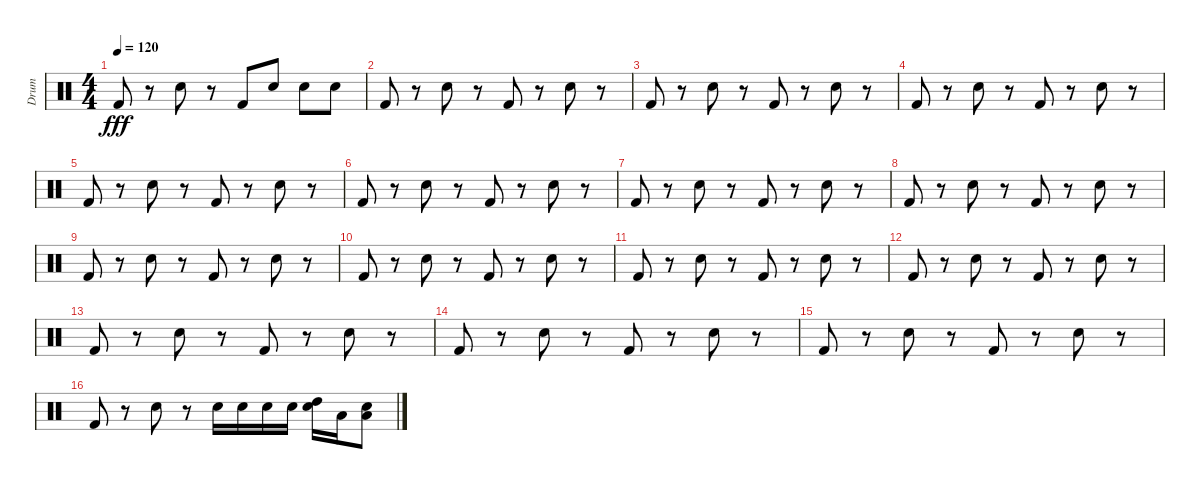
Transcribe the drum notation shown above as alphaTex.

\track ("Drum" "Drum") {instrument percussion}
\staff {score}
\articulation defaults
\ts (4 4)
\tempo 120
\clef neutral
\ks c "Kick (hit) 2".8{dy fff}
r.8 "Snare (hit) 2".8 r.8 "Kick (hit) 2".8 "Snare (hit) 2".8 "Snare (hit) 2".8 "Snare (hit) 2".8 |
"Kick (hit) 2".8 r.8 "Snare (hit) 2".8 r.8 "Kick (hit) 2".8 r.8 "Snare (hit) 2".8 r.8 |
"Kick (hit) 2".8 r.8 "Snare (hit) 2".8 r.8 "Kick (hit) 2".8 r.8 "Snare (hit) 2".8 r.8 |
"Kick (hit) 2".8 r.8 "Snare (hit) 2".8 r.8 "Kick (hit) 2".8 r.8 "Snare (hit) 2".8 r.8 |
"Kick (hit) 2".8 r.8 "Snare (hit) 2".8 r.8 "Kick (hit) 2".8 r.8 "Snare (hit) 2".8 r.8 |
"Kick (hit) 2".8 r.8 "Snare (hit) 2".8 r.8 "Kick (hit) 2".8 r.8 "Snare (hit) 2".8 r.8 |
"Kick (hit) 2".8 r.8 "Snare (hit) 2".8 r.8 "Kick (hit) 2".8 r.8 "Snare (hit) 2".8 r.8 |
"Kick (hit) 2".8 r.8 "Snare (hit) 2".8 r.8 "Kick (hit) 2".8 r.8 "Snare (hit) 2".8 r.8 |
"Kick (hit) 2".8 r.8 "Snare (hit) 2".8 r.8 "Kick (hit) 2".8 r.8 "Snare (hit) 2".8 r.8 |
"Kick (hit) 2".8 r.8 "Snare (hit) 2".8 r.8 "Kick (hit) 2".8 r.8 "Snare (hit) 2".8 r.8 |
"Kick (hit) 2".8 r.8 "Snare (hit) 2".8 r.8 "Kick (hit) 2".8 r.8 "Snare (hit) 2".8 r.8 |
"Kick (hit) 2".8 r.8 "Snare (hit) 2".8 r.8 "Kick (hit) 2".8 r.8 "Snare (hit) 2".8 r.8 |
"Kick (hit) 2".8 r.8 "Snare (hit) 2".8 r.8 "Kick (hit) 2".8 r.8 "Snare (hit) 2".8 r.8 |
"Kick (hit) 2".8 r.8 "Snare (hit) 2".8 r.8 "Kick (hit) 2".8 r.8 "Snare (hit) 2".8 r.8 |
"Kick (hit) 2".8 r.8 "Snare (hit) 2".8 r.8 "Kick (hit) 2".8 r.8 "Snare (hit) 2".8 r.8 |
"Kick (hit) 2".8 r.8 "Snare (hit) 2".8 r.8 "Snare (hit) 2".16 "Snare (hit) 2".16 "Snare (hit) 2".16 "Snare (hit) 2".16 ("High Tom (hit)" "Snare (hit) 2").16 "Low Tom (hit)".16 ("Snare (hit) 2" "Low Floor Tom (hit)").8
